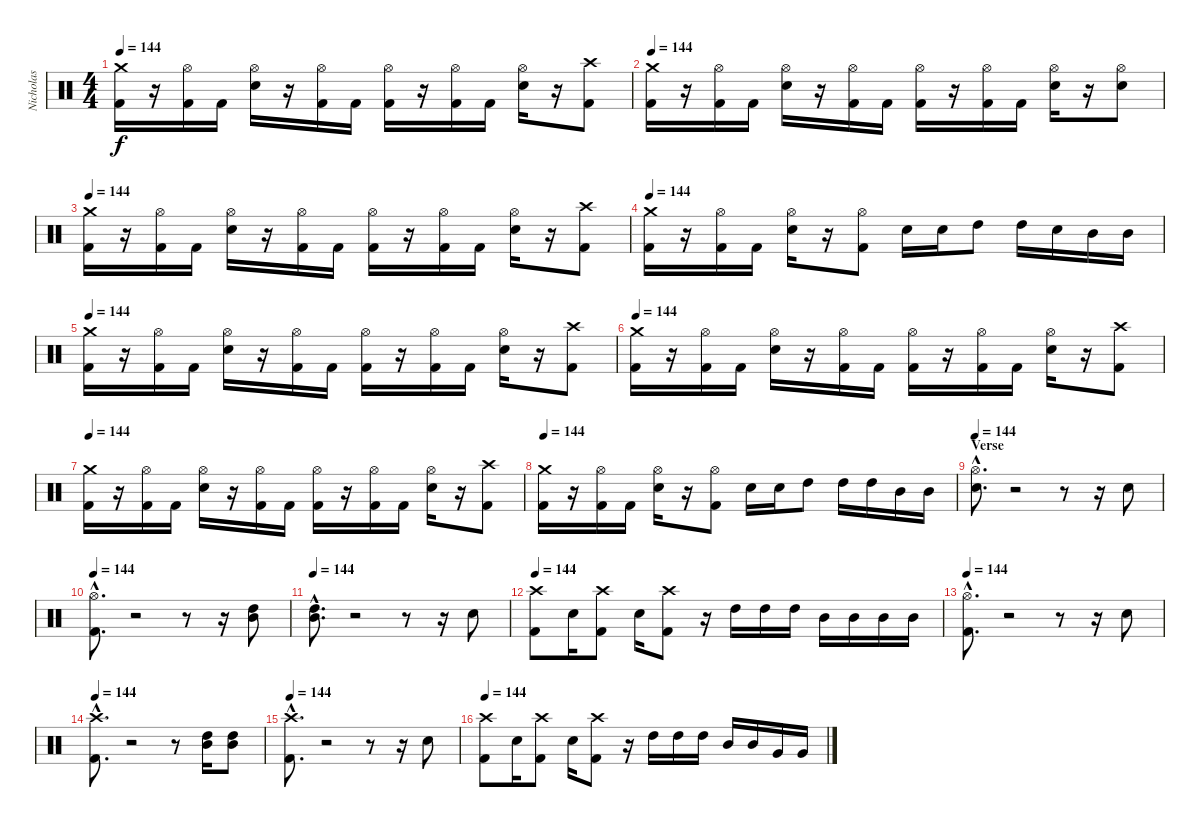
\track ("Nicholas" "Nicholas") {instrument percussion}
\staff {score}
\articulation defaults
\ts (4 4)
\tempo 144
\clef neutral
\ks c
("Crash medium (hit)" "Kick (hit) 2").16{dy f} r.16 ("Hi-Hat (open)" "Kick (hit) 2").16 "Kick (hit) 2".16 ("Hi-Hat (open)" "Snare (hit) 2").16 r.16 ("Hi-Hat (open)" "Kick (hit) 2").16 "Kick (hit) 2".16 ("Hi-Hat (open)" "Kick (hit) 2").16 r.16 ("Hi-Hat (open)" "Kick (hit) 2").16 "Kick (hit) 2".16 ("Hi-Hat (open)" "Snare (hit) 2").16 r.16 ("Crash high (hit)" "Kick (hit) 2").8 |
\tempo 144
("Crash medium (hit)" "Kick (hit) 2").16 r.16 ("Hi-Hat (open)" "Kick (hit) 2").16 "Kick (hit) 2".16 ("Hi-Hat (open)" "Snare (hit) 2").16 r.16 ("Hi-Hat (open)" "Kick (hit) 2").16 "Kick (hit) 2".16 ("Hi-Hat (open)" "Kick (hit) 2").16 r.16 ("Hi-Hat (open)" "Kick (hit) 2").16 "Kick (hit) 2".16 ("Hi-Hat (open)" "Snare (hit) 2").16 r.16 ("Hi-Hat (open)" "Snare (hit) 2").8 |
\tempo 144
("Crash medium (hit)" "Kick (hit) 2").16 r.16 ("Hi-Hat (open)" "Kick (hit) 2").16 "Kick (hit) 2".16 ("Hi-Hat (open)" "Snare (hit) 2").16 r.16 ("Hi-Hat (open)" "Kick (hit) 2").16 "Kick (hit) 2".16 ("Hi-Hat (open)" "Kick (hit) 2").16 r.16 ("Hi-Hat (open)" "Kick (hit) 2").16 "Kick (hit) 2".16 ("Hi-Hat (open)" "Snare (hit) 2").16 r.16 ("Crash high (hit)" "Kick (hit) 2").8 |
\tempo 144
("Crash medium (hit)" "Kick (hit) 2").16 r.16 ("Hi-Hat (open)" "Kick (hit) 2").16 "Kick (hit) 2".16 ("Hi-Hat (open)" "Snare (hit) 2").16 r.16 ("Hi-Hat (open)" "Kick (hit) 2").8 "Snare (hit) 2".16 "Snare (hit) 2".16 "High Tom (hit)".8 "High Tom (hit)".16 "Snare (hit) 2".16 "Mid Tom (hit)".16 "Mid Tom (hit)".16 |
\tempo 144
("Crash medium (hit)" "Kick (hit) 2").16 r.16 ("Hi-Hat (open)" "Kick (hit) 2").16 "Kick (hit) 2".16 ("Hi-Hat (open)" "Snare (hit) 2").16 r.16 ("Hi-Hat (open)" "Kick (hit) 2").16 "Kick (hit) 2".16 ("Hi-Hat (open)" "Kick (hit) 2").16 r.16 ("Hi-Hat (open)" "Kick (hit) 2").16 "Kick (hit) 2".16 ("Hi-Hat (open)" "Snare (hit) 2").16 r.16 ("Crash high (hit)" "Kick (hit) 2").8 |
\tempo 144
("Crash medium (hit)" "Kick (hit) 2").16 r.16 ("Hi-Hat (open)" "Kick (hit) 2").16 "Kick (hit) 2".16 ("Hi-Hat (open)" "Snare (hit) 2").16 r.16 ("Hi-Hat (open)" "Kick (hit) 2").16 "Kick (hit) 2".16 ("Hi-Hat (open)" "Kick (hit) 2").16 r.16 ("Hi-Hat (open)" "Kick (hit) 2").16 "Kick (hit) 2".16 ("Hi-Hat (open)" "Snare (hit) 2").16 r.16 ("Crash high (hit)" "Kick (hit) 2").8 |
\tempo 144
("Crash medium (hit)" "Kick (hit) 2").16 r.16 ("Hi-Hat (open)" "Kick (hit) 2").16 "Kick (hit) 2".16 ("Hi-Hat (open)" "Snare (hit) 2").16 r.16 ("Hi-Hat (open)" "Kick (hit) 2").16 "Kick (hit) 2".16 ("Hi-Hat (open)" "Kick (hit) 2").16 r.16 ("Hi-Hat (open)" "Kick (hit) 2").16 "Kick (hit) 2".16 ("Hi-Hat (open)" "Snare (hit) 2").16 r.16 ("Crash high (hit)" "Kick (hit) 2").8 |
\tempo 144
("Crash medium (hit)" "Kick (hit) 2").16 r.16 ("Hi-Hat (open)" "Kick (hit) 2").16 "Kick (hit) 2".16 ("Hi-Hat (open)" "Snare (hit) 2").16 r.16 ("Hi-Hat (open)" "Kick (hit) 2").8 "Snare (hit) 2".16 "Snare (hit) 2".16 "High Tom (hit)".8 "High Tom (hit)".16 "High Tom (hit)".16 "Mid Tom (hit)".16 "Mid Tom (hit)".16 |
\section ("" "Verse")
\tempo 144
("Hi-Hat (open)"{hac} "Snare (hit) 2"{hac}).8{d} r.2 r.8 r.16 "Snare (hit) 2".8 |
\tempo 144
("Hi-Hat (open)"{hac} "Kick (hit) 2"{hac}).8{d} r.2 r.8 r.16 ("High Tom (hit)" "Mid Tom (hit)").8 |
\tempo 144
("High Tom (hit)"{hac} "Mid Tom (hit)"{hac}).8{d} r.2 r.8 r.16 "Snare (hit) 2".8 |
\tempo 144
("Crash high (hit)" "Kick (hit) 2").8 "Snare (hit) 2".16 ("Crash high (hit)" "Kick (hit) 2").8 "Snare (hit) 2".16 ("Crash high (hit)" "Kick (hit) 2").8 r.16 "High Tom (hit)".16 "High Tom (hit)".16 "High Tom (hit)".16 "Mid Tom (hit)".16 "Mid Tom (hit)".16 "Mid Tom (hit)".16 "Mid Tom (hit)".16 |
\tempo 144
("Hi-Hat (open)"{hac} "Kick (hit) 2"{hac}).8{d} r.2 r.8 r.16 "Snare (hit) 2".8 |
\tempo 144
("Crash high (hit)"{hac} "Kick (hit) 2"{hac}).8{d} r.2 r.8 ("High Tom (hit)" "Mid Tom (hit)").16 ("High Tom (hit)" "Mid Tom (hit)").8 |
\tempo 144
("Crash high (hit)"{hac} "Kick (hit) 2"{hac}).8{d} r.2 r.8 r.16 "Snare (hit) 2".8 |
\tempo 144
("Crash high (hit)" "Kick (hit) 2").8 "Snare (hit) 2".16 ("Crash high (hit)" "Kick (hit) 2").8 "Snare (hit) 2".16 ("Crash high (hit)" "Kick (hit) 2").8 r.16 "High Tom (hit)".16 "High Tom (hit)".16 "High Tom (hit)".16 "Mid Tom (hit)".16 "Mid Tom (hit)".16 "Very Low Tom (hit)".16 "Very Low Tom (hit)".16
